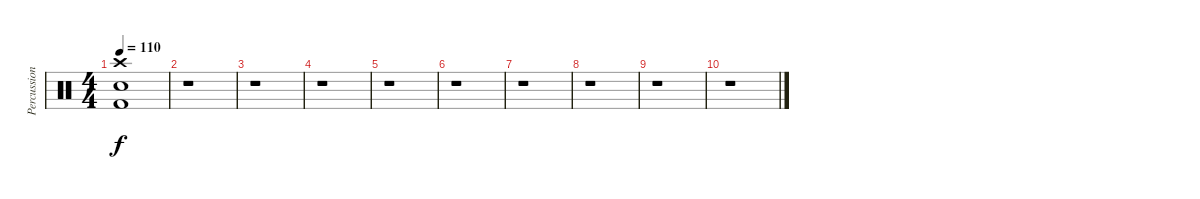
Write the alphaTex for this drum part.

\track ("Percussions" "Percussion") {instrument percussion}
\staff {score}
\articulation defaults
\ts (4 4)
\tempo 110
\clef neutral
\ks c
("Crash high (hit)" "Snare (hit) 2" "Kick (hit) 2").1{dy f} |
r.1 |
r.1 |
r.1 |
r.1 |
r.1 |
r.1 |
r.1 |
r.1 |
r.1
